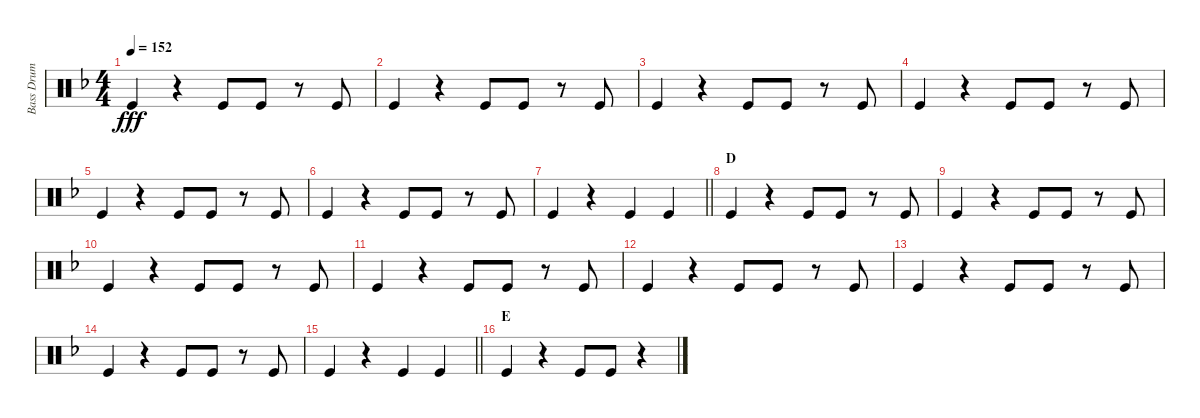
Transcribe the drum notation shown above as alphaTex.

\track ("Bass Drum" "Bass Drum") {instrument percussion}
\staff {score}
\articulation defaults
\ts (4 4)
\tempo 152
\clef neutral
\ks f "Kick (hit)".4{dy fff}
r.4 "Kick (hit)".8 "Kick (hit)".8 r.8 "Kick (hit)".8 |
"Kick (hit)".4 r.4 "Kick (hit)".8 "Kick (hit)".8 r.8 "Kick (hit)".8 |
"Kick (hit)".4 r.4 "Kick (hit)".8 "Kick (hit)".8 r.8 "Kick (hit)".8 |
"Kick (hit)".4 r.4 "Kick (hit)".8 "Kick (hit)".8 r.8 "Kick (hit)".8 |
"Kick (hit)".4 r.4 "Kick (hit)".8 "Kick (hit)".8 r.8 "Kick (hit)".8 |
"Kick (hit)".4 r.4 "Kick (hit)".8 "Kick (hit)".8 r.8 "Kick (hit)".8 |
\barLineRight lightlight "Kick (hit)".4
r.4 "Kick (hit)".4 "Kick (hit)".4 |
\section ("" "D")
"Kick (hit)".4 r.4 "Kick (hit)".8 "Kick (hit)".8 r.8 "Kick (hit)".8 |
"Kick (hit)".4 r.4 "Kick (hit)".8 "Kick (hit)".8 r.8 "Kick (hit)".8 |
"Kick (hit)".4 r.4 "Kick (hit)".8 "Kick (hit)".8 r.8 "Kick (hit)".8 |
"Kick (hit)".4 r.4 "Kick (hit)".8 "Kick (hit)".8 r.8 "Kick (hit)".8 |
"Kick (hit)".4 r.4 "Kick (hit)".8 "Kick (hit)".8 r.8 "Kick (hit)".8 |
"Kick (hit)".4 r.4 "Kick (hit)".8 "Kick (hit)".8 r.8 "Kick (hit)".8 |
"Kick (hit)".4 r.4 "Kick (hit)".8 "Kick (hit)".8 r.8 "Kick (hit)".8 |
\barLineRight lightlight "Kick (hit)".4
r.4 "Kick (hit)".4 "Kick (hit)".4 |
\section ("" "E")
"Kick (hit)".4 r.4 "Kick (hit)".8 "Kick (hit)".8 r.4
